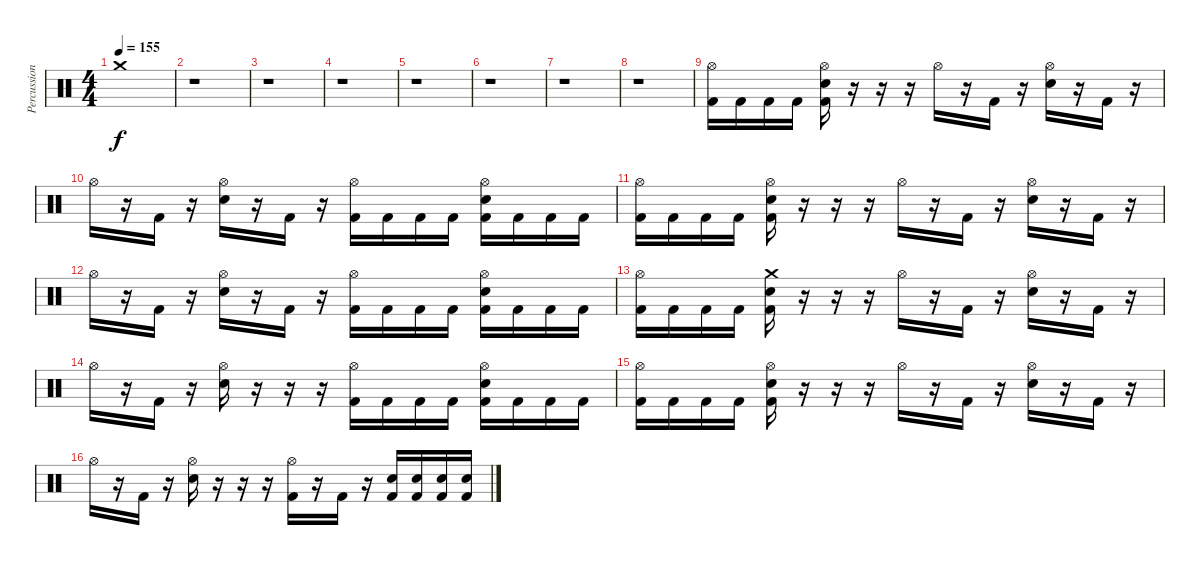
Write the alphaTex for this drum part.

\track ("Percussion" "Percussion") {instrument percussion}
\staff {score}
\articulation defaults
\ts (4 4)
\tempo 155
\clef neutral
\ks c "Crash medium (hit)".1{dy f}
|
r.1 |
r.1 |
r.1 |
r.1 |
r.1 |
r.1 |
r.1 |
("Hi-Hat (open)" "Kick (hit) 2").16 "Kick (hit) 2".16 "Kick (hit) 2".16 "Kick (hit) 2".16 ("Hi-Hat (open)" "Snare (hit) 2" "Kick (hit) 2").16 r.16 r.16 r.16 "Hi-Hat (open)".16 r.16 "Kick (hit) 2".16 r.16 ("Hi-Hat (open)" "Snare (hit) 2").16 r.16 "Kick (hit) 2".16 r.16 |
"Hi-Hat (open)".16 r.16 "Kick (hit) 2".16 r.16 ("Hi-Hat (open)" "Snare (hit) 2").16 r.16 "Kick (hit) 2".16 r.16 ("Hi-Hat (open)" "Kick (hit) 2").16 "Kick (hit) 2".16 "Kick (hit) 2".16 "Kick (hit) 2".16 ("Hi-Hat (open)" "Snare (hit) 2" "Kick (hit) 2").16 "Kick (hit) 2".16 "Kick (hit) 2".16 "Kick (hit) 2".16 |
("Hi-Hat (open)" "Kick (hit) 2").16 "Kick (hit) 2".16 "Kick (hit) 2".16 "Kick (hit) 2".16 ("Hi-Hat (open)" "Snare (hit) 2" "Kick (hit) 2").16 r.16 r.16 r.16 "Hi-Hat (open)".16 r.16 "Kick (hit) 2".16 r.16 ("Hi-Hat (open)" "Snare (hit) 2").16 r.16 "Kick (hit) 2".16 r.16 |
"Hi-Hat (open)".16 r.16 "Kick (hit) 2".16 r.16 ("Hi-Hat (open)" "Snare (hit) 2").16 r.16 "Kick (hit) 2".16 r.16 ("Hi-Hat (open)" "Kick (hit) 2").16 "Kick (hit) 2".16 "Kick (hit) 2".16 "Kick (hit) 2".16 ("Hi-Hat (open)" "Snare (hit) 2" "Kick (hit) 2").16 "Kick (hit) 2".16 "Kick (hit) 2".16 "Kick (hit) 2".16 |
("Hi-Hat (open)" "Kick (hit) 2").16 "Kick (hit) 2".16 "Kick (hit) 2".16 "Kick (hit) 2".16 ("Crash medium (hit)" "Snare (hit) 2" "Kick (hit) 2").16 r.16 r.16 r.16 "Hi-Hat (open)".16 r.16 "Kick (hit) 2".16 r.16 ("Hi-Hat (open)" "Snare (hit) 2").16 r.16 "Kick (hit) 2".16 r.16 |
"Hi-Hat (open)".16 r.16 "Kick (hit) 2".16 r.16 ("Hi-Hat (open)" "Snare (hit) 2").16 r.16 r.16 r.16 ("Hi-Hat (open)" "Kick (hit) 2").16 "Kick (hit) 2".16 "Kick (hit) 2".16 "Kick (hit) 2".16 ("Hi-Hat (open)" "Snare (hit) 2" "Kick (hit) 2").16 "Kick (hit) 2".16 "Kick (hit) 2".16 "Kick (hit) 2".16 |
("Hi-Hat (open)" "Kick (hit) 2").16 "Kick (hit) 2".16 "Kick (hit) 2".16 "Kick (hit) 2".16 ("Hi-Hat (open)" "Snare (hit) 2" "Kick (hit) 2").16 r.16 r.16 r.16 "Hi-Hat (open)".16 r.16 "Kick (hit) 2".16 r.16 ("Hi-Hat (open)" "Snare (hit) 2").16 r.16 "Kick (hit) 2".16 r.16 |
"Hi-Hat (open)".16 r.16 "Kick (hit) 2".16 r.16 ("Hi-Hat (open)" "Snare (hit) 2").16 r.16 r.16 r.16 ("Hi-Hat (open)" "Kick (hit) 2").16 r.16 "Kick (hit) 2".16 r.16 ("Snare (hit) 2" "Kick (hit) 2").16 ("Snare (hit) 2" "Kick (hit) 2").16 ("Snare (hit) 2" "Kick (hit) 2").16 ("Snare (hit) 2" "Kick (hit) 2").16
